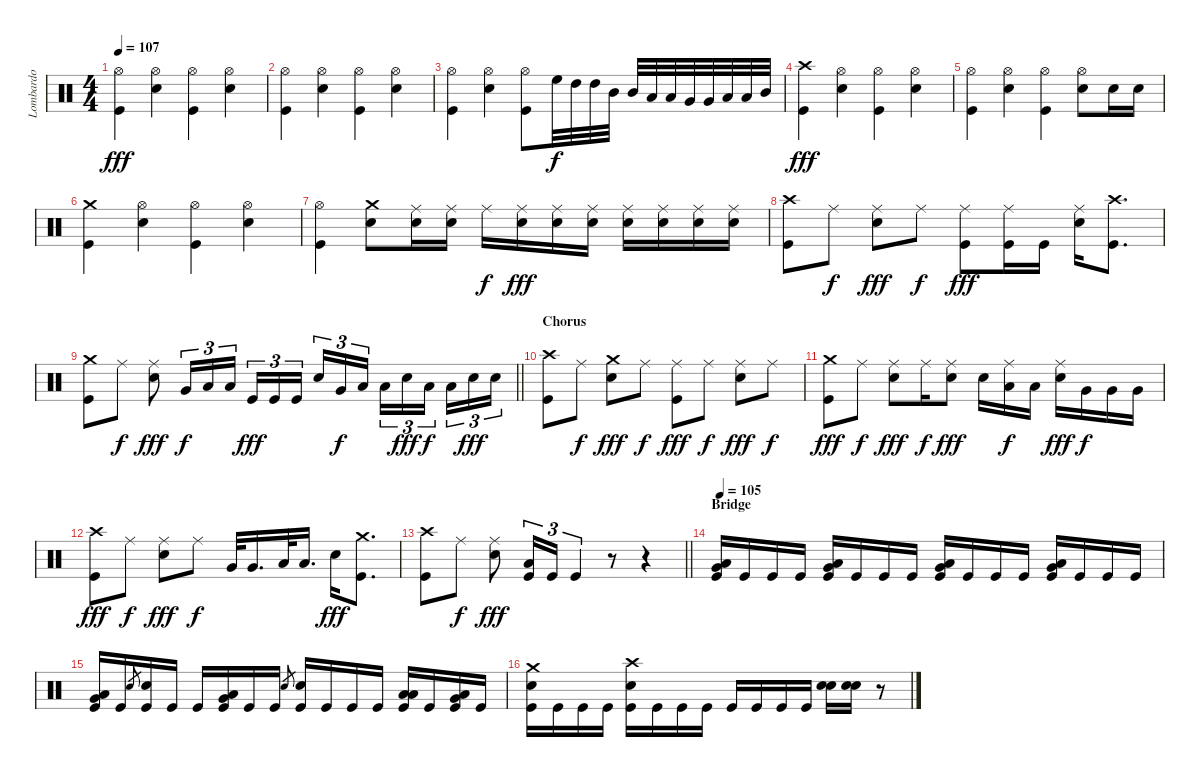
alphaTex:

\track ("Lombardo" "Lombardo") {instrument percussion}
\staff {score}
\articulation defaults
\ts (4 4)
\tempo 107
\clef neutral
\ks c
("Kick (hit)" "Hi-Hat (open)").4{dy fff} ("Electric Snare (hit)" "Hi-Hat (open)").4 ("Kick (hit)" "Hi-Hat (open)").4 ("Electric Snare (hit)" "Hi-Hat (open)").4 |
("Kick (hit)" "Hi-Hat (open)").4 ("Electric Snare (hit)" "Hi-Hat (open)").4 ("Kick (hit)" "Hi-Hat (open)").4 ("Electric Snare (hit)" "Hi-Hat (open)").4 |
("Kick (hit)" "Hi-Hat (open)").4 ("Electric Snare (hit)" "Hi-Hat (open)").4 ("Kick (hit)" "Hi-Hat (open)").8 "High Floor Tom (hit)".32{dy f} "High Tom (hit)".32 "High Tom (hit)".32 "Mid Tom (hit)".32 "Mid Tom (hit)".32 "Low Tom (hit)".32 "Low Tom (hit)".32 "Very Low Tom (hit)".32 "Very Low Tom (hit)".32 "Low Tom (hit)".32 "Low Tom (hit)".32 "Mid Tom (hit)".32 |
("Kick (hit)" "Crash high (hit)").4{dy fff} ("Electric Snare (hit)" "Hi-Hat (open)").4 ("Kick (hit)" "Hi-Hat (open)").4 ("Electric Snare (hit)" "Hi-Hat (open)").4 |
("Kick (hit)" "Hi-Hat (open)").4 ("Electric Snare (hit)" "Hi-Hat (open)").4 ("Kick (hit)" "Hi-Hat (open)").4 ("Electric Snare (hit)" "Hi-Hat (open)").8 "Electric Snare (hit)".16 "Electric Snare (hit)".16 |
("Kick (hit)" "Crash medium (hit)").4 ("Electric Snare (hit)" "Hi-Hat (open)").4 ("Kick (hit)" "Hi-Hat (open)").4 ("Electric Snare (hit)" "Hi-Hat (open)").4 |
("Kick (hit)" "Hi-Hat (open)").4 ("Electric Snare (hit)" "Crash medium (hit)").8 ("Electric Snare (hit)" "Ride (middle)").16 ("Electric Snare (hit)" "Ride (middle)").16 "Ride (middle)".16{dy f} ("Electric Snare (hit)" "Ride (middle)").16{dy fff} ("Electric Snare (hit)" "Ride (middle)").16 ("Electric Snare (hit)" "Ride (middle)").16 ("Electric Snare (hit)" "Ride (middle)").16 ("Electric Snare (hit)" "Ride (middle)").16 ("Electric Snare (hit)" "Ride (middle)").16 ("Electric Snare (hit)" "Ride (middle)").16 |
("Kick (hit)" "Crash high (hit)").8 "Ride (middle)".8{dy f} ("Electric Snare (hit)" "Ride (middle)").8{dy fff} "Ride (middle)".8{dy f} ("Kick (hit)" "Ride (middle)").8{dy fff} ("Kick (hit)" "Ride (middle)").16 "Kick (hit)".16 ("Electric Snare (hit)" "Ride (middle)").16 ("Kick (hit)" "Crash high (hit)").8{d} |
\barLineRight lightlight
("Kick (hit)" "Crash medium (hit)").8 "Ride (middle)".8{dy f} ("Electric Snare (hit)" "Ride (middle)").8{dy fff} "Very Low Tom (hit)".16{tu (3 2) dy f} "Low Floor Tom (hit)".16{tu (3 2)} "Low Floor Tom (hit)".16{tu (3 2)} "Kick (hit)".16{tu (3 2) dy fff} "Kick (hit)".16{tu (3 2)} "Kick (hit)".16{tu (3 2)} "Electric Snare (hit)".16{tu (3 2)} "Very Low Tom (hit)".16{tu (3 2) dy f} "Low Floor Tom (hit)".16{tu (3 2)} "Low Tom (hit)".16{tu (3 2)} "Electric Snare (hit)".16{tu (3 2) dy fff} "Low Floor Tom (hit)".16{tu (3 2) dy f} "Low Floor Tom (hit)".16{tu (3 2)} "Electric Snare (hit)".16{tu (3 2) dy fff} "Electric Snare (hit)".16{tu (3 2)} |
\section ("" "Chorus")
("Kick (hit)" "Crash high (hit)").8 "Ride (middle)".8{dy f} ("Electric Snare (hit)" "Crash medium (hit)").8{dy fff} "Ride (middle)".8{dy f} ("Kick (hit)" "Ride (middle)").8{dy fff} "Ride (middle)".8{dy f} ("Electric Snare (hit)" "Ride (middle)").8{dy fff} "Ride (middle)".8{dy f} |
("Crash medium (hit)" "Kick (hit)").8{dy fff} "Ride (middle)".8{dy f} ("Electric Snare (hit)" "Ride (middle)").8{dy fff} "Ride (middle)".16{dy f} ("Electric Snare (hit)" "Ride (middle)").8{dy fff} "Electric Snare (hit)".16 ("Low Floor Tom (hit)" "Ride (middle)").16{dy f} "Low Floor Tom (hit)".16 ("Electric Snare (hit)" "Ride (middle)").16{dy fff} "Very Low Tom (hit)".16{dy f} "Very Low Tom (hit)".16 "Very Low Tom (hit)".16 |
("Kick (hit)" "Crash high (hit)").8{dy fff} "Ride (middle)".8{dy f} ("Electric Snare (hit)" "Ride (middle)").8{dy fff} "Ride (middle)".8{dy f} "Very Low Tom (hit)".32 "Very Low Tom (hit)".16{d} "Low Floor Tom (hit)".32 "Low Floor Tom (hit)".16{d} "Electric Snare (hit)".16{dy fff} ("Kick (hit)" "Crash medium (hit)").8{d} |
\barLineRight lightlight
("Kick (hit)" "Crash high (hit)").8 "Ride (middle)".8{dy f} ("Electric Snare (hit)" "Ride (middle)").8{dy fff} ("Low Floor Tom (hit)" "Kick (hit)").16{tu (3 2)} "Kick (hit)".16{tu (3 2)} "Kick (hit)".4{tu (3 2)} r.8 r.4 |
\section ("" "Bridge")
\tempo 105
("Kick (hit)" "Low Floor Tom (hit)" "Very Low Tom (hit)").16 "Kick (hit)".16 "Kick (hit)".16 "Kick (hit)".16 ("Kick (hit)" "Low Floor Tom (hit)" "Very Low Tom (hit)").16 "Kick (hit)".16 "Kick (hit)".16 "Kick (hit)".16 ("Kick (hit)" "Low Floor Tom (hit)" "Very Low Tom (hit)").16 "Kick (hit)".16 "Kick (hit)".16 "Kick (hit)".16 ("Kick (hit)" "Low Floor Tom (hit)" "Very Low Tom (hit)").16 "Kick (hit)".16 "Kick (hit)".16 "Kick (hit)".16 |
("Kick (hit)" "Very Low Tom (hit)" "Low Floor Tom (hit)").16 "Kick (hit)".16 "Electric Snare (hit)".8{gr} ("Kick (hit)" "Electric Snare (hit)").16 "Kick (hit)".16 "Kick (hit)".16 ("Kick (hit)" "Very Low Tom (hit)" "Low Floor Tom (hit)").16 "Kick (hit)".16 "Kick (hit)".16 "Electric Snare (hit)".8{gr} ("Kick (hit)" "Electric Snare (hit)").16 "Kick (hit)".16 "Kick (hit)".16 "Kick (hit)".16 ("Kick (hit)" "Low Floor Tom (hit)" "Low Tom (hit)").16 "Kick (hit)".16 ("Kick (hit)" "Very Low Tom (hit)" "Low Tom (hit)").16 "Kick (hit)".16 |
("Kick (hit)" "Crash medium (hit)" "Electric Snare (hit)").16 "Kick (hit)".16 "Kick (hit)".16 "Kick (hit)".16 ("Kick (hit)" "Crash high (hit)" "Electric Snare (hit)").16 "Kick (hit)".16 "Kick (hit)".16 "Kick (hit)".16 "Kick (hit)".16 "Kick (hit)".16 "Kick (hit)".16 "Kick (hit)".16 ("Electric Snare (hit)" "Electric Snare (hit)").16 ("Electric Snare (hit)" "Electric Snare (hit)").16 r.8
